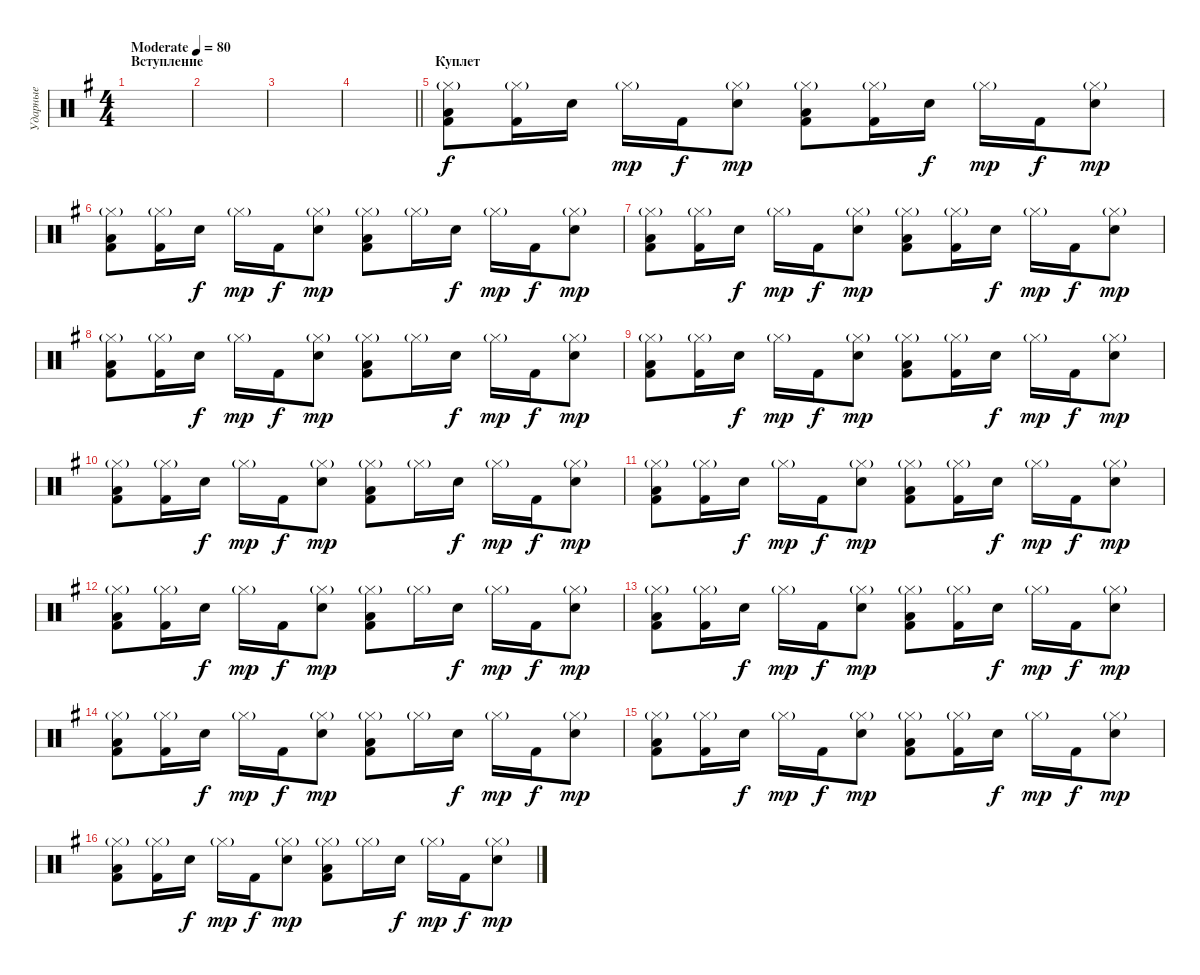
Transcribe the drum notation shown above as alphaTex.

\track ("Ударные" "Ударные") {instrument percussion}
\staff {score}
\articulation defaults
\ts (4 4)
\section ("" "Вступление")
\tempo (80 "Moderate")
\clef neutral
\ks eminor
|
|
|
\barLineRight lightlight
|
\section ("" "Куплет")
("Hi-Hat (closed)"{g} "Low Tom (hit)" "Kick (hit) 2").8 ("Hi-Hat (closed)"{g} "Kick (hit) 2").16 "Electric Snare (hit)".16{dy f} "Hi-Hat (closed)"{g}.16{dy mp} "Kick (hit) 2".16{dy f} ("Hi-Hat (closed)"{g} "Electric Snare (hit)").8{dy mp} ("Hi-Hat (closed)"{g} "Low Tom (hit)" "Kick (hit) 2").8 ("Hi-Hat (closed)"{g} "Kick (hit) 2").16 "Electric Snare (hit)".16{dy f} "Hi-Hat (closed)"{g}.16{dy mp} "Kick (hit) 2".16{dy f} ("Hi-Hat (closed)"{g} "Electric Snare (hit)").8{dy mp} |
("Hi-Hat (closed)"{g} "Low Tom (hit)" "Kick (hit) 2").8 ("Hi-Hat (closed)"{g} "Kick (hit) 2").16 "Electric Snare (hit)".16{dy f} "Hi-Hat (closed)"{g}.16{dy mp} "Kick (hit) 2".16{dy f} ("Hi-Hat (closed)"{g} "Electric Snare (hit)").8{dy mp} ("Hi-Hat (closed)"{g} "Low Tom (hit)" "Kick (hit) 2").8 "Hi-Hat (closed)"{g}.16 "Electric Snare (hit)".16{dy f} "Hi-Hat (closed)"{g}.16{dy mp} "Kick (hit) 2".16{dy f} ("Hi-Hat (closed)"{g} "Electric Snare (hit)").8{dy mp} |
("Hi-Hat (closed)"{g} "Low Tom (hit)" "Kick (hit) 2").8 ("Hi-Hat (closed)"{g} "Kick (hit) 2").16 "Electric Snare (hit)".16{dy f} "Hi-Hat (closed)"{g}.16{dy mp} "Kick (hit) 2".16{dy f} ("Hi-Hat (closed)"{g} "Electric Snare (hit)").8{dy mp} ("Hi-Hat (closed)"{g} "Low Tom (hit)" "Kick (hit) 2").8 ("Hi-Hat (closed)"{g} "Kick (hit) 2").16 "Electric Snare (hit)".16{dy f} "Hi-Hat (closed)"{g}.16{dy mp} "Kick (hit) 2".16{dy f} ("Hi-Hat (closed)"{g} "Electric Snare (hit)").8{dy mp} |
("Hi-Hat (closed)"{g} "Low Tom (hit)" "Kick (hit) 2").8 ("Hi-Hat (closed)"{g} "Kick (hit) 2").16 "Electric Snare (hit)".16{dy f} "Hi-Hat (closed)"{g}.16{dy mp} "Kick (hit) 2".16{dy f} ("Hi-Hat (closed)"{g} "Electric Snare (hit)").8{dy mp} ("Hi-Hat (closed)"{g} "Low Tom (hit)" "Kick (hit) 2").8 "Hi-Hat (closed)"{g}.16 "Electric Snare (hit)".16{dy f} "Hi-Hat (closed)"{g}.16{dy mp} "Kick (hit) 2".16{dy f} ("Hi-Hat (closed)"{g} "Electric Snare (hit)").8{dy mp} |
("Hi-Hat (closed)"{g} "Low Tom (hit)" "Kick (hit) 2").8 ("Hi-Hat (closed)"{g} "Kick (hit) 2").16 "Electric Snare (hit)".16{dy f} "Hi-Hat (closed)"{g}.16{dy mp} "Kick (hit) 2".16{dy f} ("Hi-Hat (closed)"{g} "Electric Snare (hit)").8{dy mp} ("Hi-Hat (closed)"{g} "Low Tom (hit)" "Kick (hit) 2").8 ("Hi-Hat (closed)"{g} "Kick (hit) 2").16 "Electric Snare (hit)".16{dy f} "Hi-Hat (closed)"{g}.16{dy mp} "Kick (hit) 2".16{dy f} ("Hi-Hat (closed)"{g} "Electric Snare (hit)").8{dy mp} |
("Hi-Hat (closed)"{g} "Low Tom (hit)" "Kick (hit) 2").8 ("Hi-Hat (closed)"{g} "Kick (hit) 2").16 "Electric Snare (hit)".16{dy f} "Hi-Hat (closed)"{g}.16{dy mp} "Kick (hit) 2".16{dy f} ("Hi-Hat (closed)"{g} "Electric Snare (hit)").8{dy mp} ("Hi-Hat (closed)"{g} "Low Tom (hit)" "Kick (hit) 2").8 "Hi-Hat (closed)"{g}.16 "Electric Snare (hit)".16{dy f} "Hi-Hat (closed)"{g}.16{dy mp} "Kick (hit) 2".16{dy f} ("Hi-Hat (closed)"{g} "Electric Snare (hit)").8{dy mp} |
("Hi-Hat (closed)"{g} "Low Tom (hit)" "Kick (hit) 2").8 ("Hi-Hat (closed)"{g} "Kick (hit) 2").16 "Electric Snare (hit)".16{dy f} "Hi-Hat (closed)"{g}.16{dy mp} "Kick (hit) 2".16{dy f} ("Hi-Hat (closed)"{g} "Electric Snare (hit)").8{dy mp} ("Hi-Hat (closed)"{g} "Low Tom (hit)" "Kick (hit) 2").8 ("Hi-Hat (closed)"{g} "Kick (hit) 2").16 "Electric Snare (hit)".16{dy f} "Hi-Hat (closed)"{g}.16{dy mp} "Kick (hit) 2".16{dy f} ("Hi-Hat (closed)"{g} "Electric Snare (hit)").8{dy mp} |
("Hi-Hat (closed)"{g} "Low Tom (hit)" "Kick (hit) 2").8 ("Hi-Hat (closed)"{g} "Kick (hit) 2").16 "Electric Snare (hit)".16{dy f} "Hi-Hat (closed)"{g}.16{dy mp} "Kick (hit) 2".16{dy f} ("Hi-Hat (closed)"{g} "Electric Snare (hit)").8{dy mp} ("Hi-Hat (closed)"{g} "Low Tom (hit)" "Kick (hit) 2").8 "Hi-Hat (closed)"{g}.16 "Electric Snare (hit)".16{dy f} "Hi-Hat (closed)"{g}.16{dy mp} "Kick (hit) 2".16{dy f} ("Hi-Hat (closed)"{g} "Electric Snare (hit)").8{dy mp} |
("Hi-Hat (closed)"{g} "Low Tom (hit)" "Kick (hit) 2").8 ("Hi-Hat (closed)"{g} "Kick (hit) 2").16 "Electric Snare (hit)".16{dy f} "Hi-Hat (closed)"{g}.16{dy mp} "Kick (hit) 2".16{dy f} ("Hi-Hat (closed)"{g} "Electric Snare (hit)").8{dy mp} ("Hi-Hat (closed)"{g} "Low Tom (hit)" "Kick (hit) 2").8 ("Hi-Hat (closed)"{g} "Kick (hit) 2").16 "Electric Snare (hit)".16{dy f} "Hi-Hat (closed)"{g}.16{dy mp} "Kick (hit) 2".16{dy f} ("Hi-Hat (closed)"{g} "Electric Snare (hit)").8{dy mp} |
("Hi-Hat (closed)"{g} "Low Tom (hit)" "Kick (hit) 2").8 ("Hi-Hat (closed)"{g} "Kick (hit) 2").16 "Electric Snare (hit)".16{dy f} "Hi-Hat (closed)"{g}.16{dy mp} "Kick (hit) 2".16{dy f} ("Hi-Hat (closed)"{g} "Electric Snare (hit)").8{dy mp} ("Hi-Hat (closed)"{g} "Low Tom (hit)" "Kick (hit) 2").8 "Hi-Hat (closed)"{g}.16 "Electric Snare (hit)".16{dy f} "Hi-Hat (closed)"{g}.16{dy mp} "Kick (hit) 2".16{dy f} ("Hi-Hat (closed)"{g} "Electric Snare (hit)").8{dy mp} |
("Hi-Hat (closed)"{g} "Low Tom (hit)" "Kick (hit) 2").8 ("Hi-Hat (closed)"{g} "Kick (hit) 2").16 "Electric Snare (hit)".16{dy f} "Hi-Hat (closed)"{g}.16{dy mp} "Kick (hit) 2".16{dy f} ("Hi-Hat (closed)"{g} "Electric Snare (hit)").8{dy mp} ("Hi-Hat (closed)"{g} "Low Tom (hit)" "Kick (hit) 2").8 ("Hi-Hat (closed)"{g} "Kick (hit) 2").16 "Electric Snare (hit)".16{dy f} "Hi-Hat (closed)"{g}.16{dy mp} "Kick (hit) 2".16{dy f} ("Hi-Hat (closed)"{g} "Electric Snare (hit)").8{dy mp} |
("Hi-Hat (closed)"{g} "Low Tom (hit)" "Kick (hit) 2").8 ("Hi-Hat (closed)"{g} "Kick (hit) 2").16 "Electric Snare (hit)".16{dy f} "Hi-Hat (closed)"{g}.16{dy mp} "Kick (hit) 2".16{dy f} ("Hi-Hat (closed)"{g} "Electric Snare (hit)").8{dy mp} ("Hi-Hat (closed)"{g} "Low Tom (hit)" "Kick (hit) 2").8 "Hi-Hat (closed)"{g}.16 "Electric Snare (hit)".16{dy f} "Hi-Hat (closed)"{g}.16{dy mp} "Kick (hit) 2".16{dy f} ("Hi-Hat (closed)"{g} "Electric Snare (hit)").8{dy mp}
